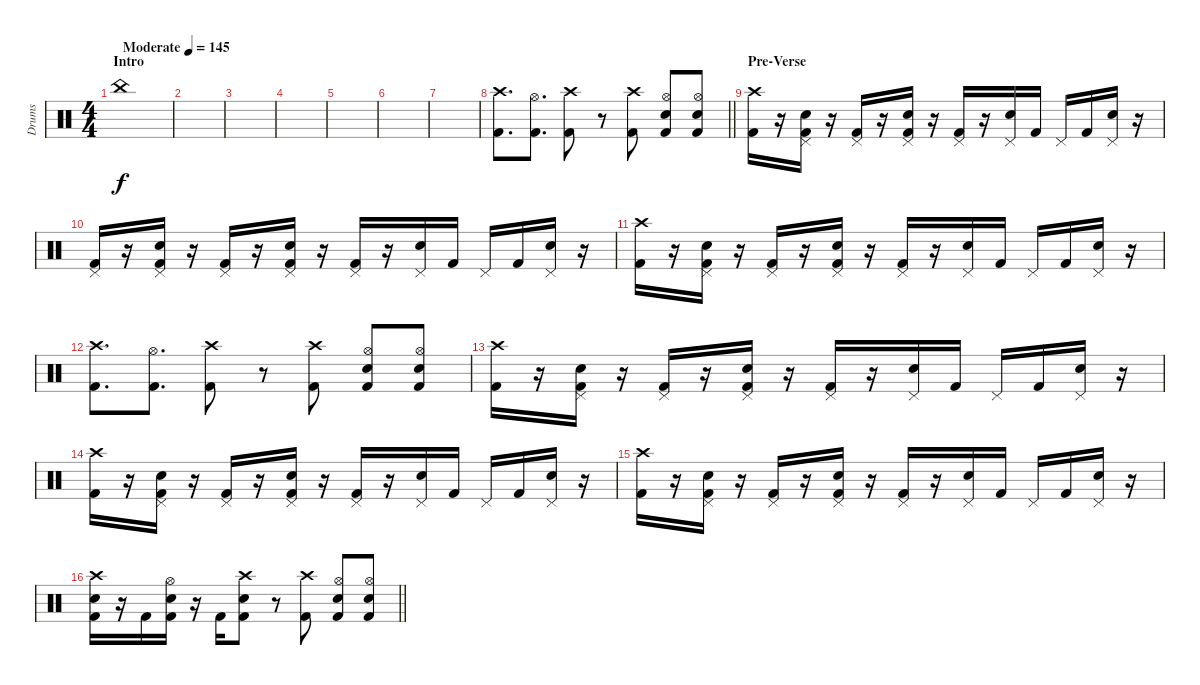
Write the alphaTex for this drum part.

\track ("Drums" "Drums") {instrument percussion}
\staff {score}
\articulation defaults
\ts (4 4)
\section ("" "Intro")
\tempo (145 "Moderate")
\clef neutral
\ks c "China (hit)".1{dy f}
|
|
|
|
|
|
|
\barLineRight lightlight
("Crash high (hit)" "Kick (hit) 2").8{d} ("Hi-Hat (open)" "Kick (hit) 2").8{d} ("Crash high (hit)" "Kick (hit) 2").8 r.8 ("Crash high (hit)" "Kick (hit) 2").8 ("Hi-Hat (open)" "Snare (hit) 2" "Kick (hit) 2").8 ("Hi-Hat (open)" "Snare (hit) 2" "Kick (hit) 2").8 |
\section ("" "Pre-Verse")
("Crash high (hit)" "Kick (hit) 2").16 r.16 ("Pedal Hi-Hat (hit)" "Snare (hit) 2" "Kick (hit) 2").16 r.16 ("Pedal Hi-Hat (hit)" "Kick (hit) 2").16 r.16 ("Pedal Hi-Hat (hit)" "Snare (hit) 2" "Kick (hit) 2").16 r.16 ("Pedal Hi-Hat (hit)" "Kick (hit) 2").16 r.16 ("Pedal Hi-Hat (hit)" "Snare (hit) 2").16 "Kick (hit) 2".16 "Pedal Hi-Hat (hit)".16 "Kick (hit) 2".16 ("Pedal Hi-Hat (hit)" "Snare (hit) 2").16 r.16 |
("Pedal Hi-Hat (hit)" "Kick (hit) 2").16 r.16 ("Pedal Hi-Hat (hit)" "Snare (hit) 2" "Kick (hit) 2").16 r.16 ("Pedal Hi-Hat (hit)" "Kick (hit) 2").16 r.16 ("Pedal Hi-Hat (hit)" "Snare (hit) 2" "Kick (hit) 2").16 r.16 ("Pedal Hi-Hat (hit)" "Kick (hit) 2").16 r.16 ("Pedal Hi-Hat (hit)" "Snare (hit) 2").16 "Kick (hit) 2".16 "Pedal Hi-Hat (hit)".16 "Kick (hit) 2".16 ("Pedal Hi-Hat (hit)" "Snare (hit) 2").16 r.16 |
("Crash high (hit)" "Kick (hit) 2").16 r.16 ("Pedal Hi-Hat (hit)" "Snare (hit) 2" "Kick (hit) 2").16 r.16 ("Pedal Hi-Hat (hit)" "Kick (hit) 2").16 r.16 ("Pedal Hi-Hat (hit)" "Snare (hit) 2" "Kick (hit) 2").16 r.16 ("Pedal Hi-Hat (hit)" "Kick (hit) 2").16 r.16 ("Pedal Hi-Hat (hit)" "Snare (hit) 2").16 "Kick (hit) 2".16 "Pedal Hi-Hat (hit)".16 "Kick (hit) 2".16 ("Pedal Hi-Hat (hit)" "Snare (hit) 2").16 r.16 |
("Crash high (hit)" "Kick (hit) 2").8{d} ("Hi-Hat (open)" "Kick (hit) 2").8{d} ("Crash high (hit)" "Kick (hit) 2").8 r.8 ("Crash high (hit)" "Kick (hit) 2").8 ("Hi-Hat (open)" "Snare (hit) 2" "Kick (hit) 2").8 ("Hi-Hat (open)" "Snare (hit) 2" "Kick (hit) 2").8 |
("Crash high (hit)" "Kick (hit) 2").16 r.16 ("Pedal Hi-Hat (hit)" "Snare (hit) 2" "Kick (hit) 2").16 r.16 ("Pedal Hi-Hat (hit)" "Kick (hit) 2").16 r.16 ("Pedal Hi-Hat (hit)" "Snare (hit) 2" "Kick (hit) 2").16 r.16 ("Pedal Hi-Hat (hit)" "Kick (hit) 2").16 r.16 ("Pedal Hi-Hat (hit)" "Snare (hit) 2").16 "Kick (hit) 2".16 "Pedal Hi-Hat (hit)".16 "Kick (hit) 2".16 ("Pedal Hi-Hat (hit)" "Snare (hit) 2").16 r.16 |
("Crash high (hit)" "Kick (hit) 2").16 r.16 ("Pedal Hi-Hat (hit)" "Snare (hit) 2" "Kick (hit) 2").16 r.16 ("Pedal Hi-Hat (hit)" "Kick (hit) 2").16 r.16 ("Pedal Hi-Hat (hit)" "Snare (hit) 2" "Kick (hit) 2").16 r.16 ("Pedal Hi-Hat (hit)" "Kick (hit) 2").16 r.16 ("Pedal Hi-Hat (hit)" "Snare (hit) 2").16 "Kick (hit) 2".16 "Pedal Hi-Hat (hit)".16 "Kick (hit) 2".16 ("Pedal Hi-Hat (hit)" "Snare (hit) 2").16 r.16 |
("Crash high (hit)" "Kick (hit) 2").16 r.16 ("Pedal Hi-Hat (hit)" "Snare (hit) 2" "Kick (hit) 2").16 r.16 ("Pedal Hi-Hat (hit)" "Kick (hit) 2").16 r.16 ("Pedal Hi-Hat (hit)" "Snare (hit) 2" "Kick (hit) 2").16 r.16 ("Pedal Hi-Hat (hit)" "Kick (hit) 2").16 r.16 ("Pedal Hi-Hat (hit)" "Snare (hit) 2").16 "Kick (hit) 2".16 "Pedal Hi-Hat (hit)".16 "Kick (hit) 2".16 ("Pedal Hi-Hat (hit)" "Snare (hit) 2").16 r.16 |
\barLineRight lightlight
("Crash high (hit)" "Snare (hit) 2" "Kick (hit) 2").16 r.16 "Kick (hit) 2".16 ("Hi-Hat (open)" "Snare (hit) 2" "Kick (hit) 2").16 r.16 "Kick (hit) 2".16 ("Crash high (hit)" "Snare (hit) 2" "Kick (hit) 2").8 r.8 ("Crash high (hit)" "Kick (hit) 2").8 ("Hi-Hat (open)" "Snare (hit) 2" "Kick (hit) 2").8 ("Hi-Hat (open)" "Snare (hit) 2" "Kick (hit) 2").8
